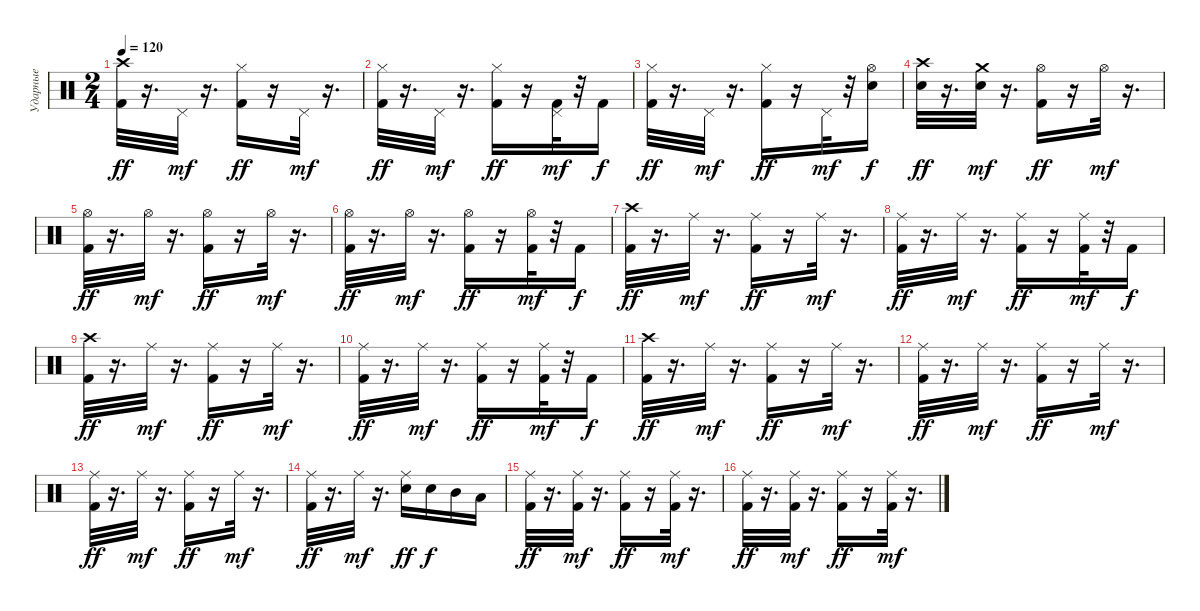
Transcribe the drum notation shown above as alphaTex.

\track ("Ударные" "Ударные") {instrument percussion}
\staff {score}
\articulation defaults
\ts (2 4)
\tempo 120
\clef neutral
\ks c
("Crash high (hit)" "Kick (hit) 2").32{dy ff} r.16{d} "Pedal Hi-Hat (hit)".32{dy mf} r.16{d} ("Hi-Hat (closed)" "Kick (hit) 2").16{dy ff} r.16 "Pedal Hi-Hat (hit)".32{dy mf} r.16{d} |
("Hi-Hat (closed)" "Kick (hit) 2").32{dy ff} r.16{d} "Pedal Hi-Hat (hit)".32{dy mf} r.16{d} ("Hi-Hat (closed)" "Kick (hit) 2").16{dy ff} r.16 ("Pedal Hi-Hat (hit)" "Kick (hit) 2").32{dy mf} r.32 "Kick (hit) 2".16{dy f} |
("Hi-Hat (closed)" "Kick (hit) 2").32{dy ff} r.16{d} "Pedal Hi-Hat (hit)".32{dy mf} r.16{d} ("Hi-Hat (closed)" "Kick (hit) 2").16{dy ff} r.16 "Pedal Hi-Hat (hit)".32{dy mf} r.32 ("Hi-Hat (open)" "Electric Snare (hit)").16{dy f} |
("Crash high (hit)" "Electric Snare (hit)").32{dy ff} r.16{d} ("Crash medium (hit)" "Electric Snare (hit)").32{dy mf} r.16{d} ("Hi-Hat (open)" "Kick (hit) 2").16{dy ff} r.16 "Hi-Hat (open)".32{dy mf} r.16{d} |
("Hi-Hat (open)" "Kick (hit) 2").32{dy ff} r.16{d} "Hi-Hat (open)".32{dy mf} r.16{d} ("Hi-Hat (open)" "Kick (hit) 2").16{dy ff} r.16 "Hi-Hat (open)".32{dy mf} r.16{d} |
("Hi-Hat (open)" "Kick (hit) 2").32{dy ff} r.16{d} "Hi-Hat (open)".32{dy mf} r.16{d} ("Hi-Hat (open)" "Kick (hit) 2").16{dy ff} r.16 ("Hi-Hat (open)" "Kick (hit) 2").32{dy mf} r.32 "Kick (hit) 2".16{dy f} |
("Crash high (hit)" "Kick (hit) 2").32{dy ff} r.16{d} "Ride (middle)".32{dy mf} r.16{d} ("Ride (middle)" "Kick (hit) 2").16{dy ff} r.16 "Ride (middle)".32{dy mf} r.16{d} |
("Ride (middle)" "Kick (hit) 2").32{dy ff} r.16{d} "Ride (middle)".32{dy mf} r.16{d} ("Ride (middle)" "Kick (hit) 2").16{dy ff} r.16 ("Ride (middle)" "Kick (hit) 2").32{dy mf} r.32 "Kick (hit) 2".16{dy f} |
("Crash high (hit)" "Kick (hit) 2").32{dy ff} r.16{d} "Ride (middle)".32{dy mf} r.16{d} ("Ride (middle)" "Kick (hit) 2").16{dy ff} r.16 "Ride (middle)".32{dy mf} r.16{d} |
("Ride (middle)" "Kick (hit) 2").32{dy ff} r.16{d} "Ride (middle)".32{dy mf} r.16{d} ("Ride (middle)" "Kick (hit) 2").16{dy ff} r.16 ("Ride (middle)" "Kick (hit) 2").32{dy mf} r.32 "Kick (hit) 2".16{dy f} |
("Crash high (hit)" "Kick (hit) 2").32{dy ff} r.16{d} "Ride (middle)".32{dy mf} r.16{d} ("Ride (middle)" "Kick (hit) 2").16{dy ff} r.16 "Ride (middle)".32{dy mf} r.16{d} |
("Ride (middle)" "Kick (hit) 2").32{dy ff} r.16{d} "Ride (middle)".32{dy mf} r.16{d} ("Ride (middle)" "Kick (hit) 2").16{dy ff} r.16 "Ride (middle)".32{dy mf} r.16{d} |
("Ride (middle)" "Kick (hit) 2").32{dy ff} r.16{d} "Ride (middle)".32{dy mf} r.16{d} ("Ride (middle)" "Kick (hit) 2").16{dy ff} r.16 "Ride (middle)".32{dy mf} r.16{d} |
("Ride (middle)" "Kick (hit) 2").32{dy ff} r.16{d} "Ride (middle)".32{dy mf} r.16{d} ("Ride (middle)" "Electric Snare (hit)").16{dy ff} "Electric Snare (hit)".16{dy f} "Mid Tom (hit)".16 "Low Tom (hit)".16 |
("Ride (middle)" "Kick (hit) 2").32{dy ff} r.16{d} ("Ride (middle)" "Kick (hit) 2").32{dy mf} r.16{d} ("Ride (middle)" "Kick (hit) 2").16{dy ff} r.16 ("Ride (middle)" "Kick (hit) 2").32{dy mf} r.16{d} |
("Ride (middle)" "Kick (hit) 2").32{dy ff} r.16{d} ("Ride (middle)" "Kick (hit) 2").32{dy mf} r.16{d} ("Ride (middle)" "Kick (hit) 2").16{dy ff} r.16 ("Ride (middle)" "Kick (hit) 2").32{dy mf} r.16{d}
